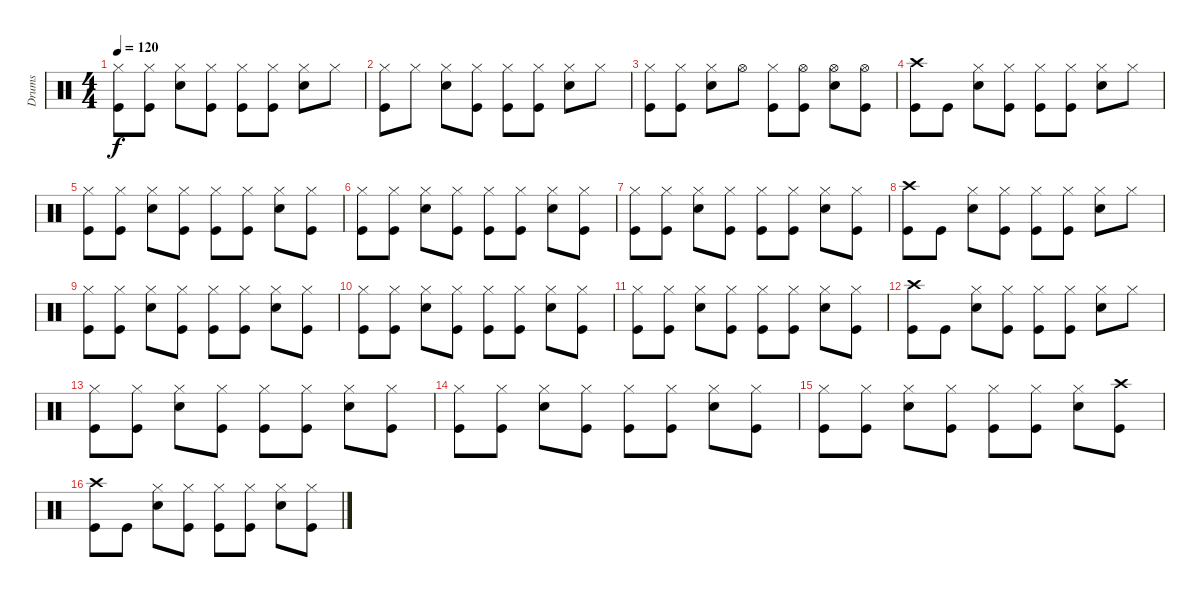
\track ("Drums" "Drums") {instrument percussion}
\staff {score}
\articulation defaults
\ts (4 4)
\tempo 120
\clef neutral
\ks c
("Hi-Hat (closed)" "Kick (hit)").8{dy f} ("Hi-Hat (closed)" "Kick (hit)").8 ("Hi-Hat (closed)" "Snare (hit) 2").8 ("Hi-Hat (closed)" "Kick (hit)").8 ("Hi-Hat (closed)" "Kick (hit)").8 ("Hi-Hat (closed)" "Kick (hit)").8 ("Hi-Hat (closed)" "Snare (hit) 2").8 "Hi-Hat (closed)".8 |
("Hi-Hat (closed)" "Kick (hit)").8 "Hi-Hat (closed)".8 ("Hi-Hat (closed)" "Snare (hit) 2").8 ("Hi-Hat (closed)" "Kick (hit)").8 ("Hi-Hat (closed)" "Kick (hit)").8 ("Hi-Hat (closed)" "Kick (hit)").8 ("Hi-Hat (closed)" "Snare (hit) 2").8 "Hi-Hat (closed)".8 |
("Hi-Hat (closed)" "Kick (hit)").8 ("Hi-Hat (closed)" "Kick (hit)").8 ("Hi-Hat (closed)" "Snare (hit) 2").8 "Hi-Hat (open)".8 ("Hi-Hat (closed)" "Kick (hit)").8 ("Hi-Hat (open)" "Kick (hit)").8 ("Hi-Hat (open)" "Snare (hit) 2").8 ("Hi-Hat (open)" "Kick (hit)").8 |
("Crash high (hit)" "Kick (hit)").8 "Kick (hit)".8 ("Hi-Hat (closed)" "Snare (hit) 2").8 ("Hi-Hat (closed)" "Kick (hit)").8 ("Hi-Hat (closed)" "Kick (hit)").8 ("Hi-Hat (closed)" "Kick (hit)").8 ("Hi-Hat (closed)" "Snare (hit) 2").8 "Hi-Hat (closed)".8 |
("Hi-Hat (closed)" "Kick (hit)").8 ("Hi-Hat (closed)" "Kick (hit)").8 ("Hi-Hat (closed)" "Snare (hit) 2").8 ("Hi-Hat (closed)" "Kick (hit)").8 ("Hi-Hat (closed)" "Kick (hit)").8 ("Hi-Hat (closed)" "Kick (hit)").8 ("Hi-Hat (closed)" "Snare (hit) 2").8 ("Hi-Hat (closed)" "Kick (hit)").8 |
("Hi-Hat (closed)" "Kick (hit)").8 ("Hi-Hat (closed)" "Kick (hit)").8 ("Hi-Hat (closed)" "Snare (hit) 2").8 ("Hi-Hat (closed)" "Kick (hit)").8 ("Hi-Hat (closed)" "Kick (hit)").8 ("Hi-Hat (closed)" "Kick (hit)").8 ("Hi-Hat (closed)" "Snare (hit) 2").8 ("Hi-Hat (closed)" "Kick (hit)").8 |
("Hi-Hat (closed)" "Kick (hit)").8 ("Hi-Hat (closed)" "Kick (hit)").8 ("Hi-Hat (closed)" "Snare (hit) 2").8 ("Hi-Hat (closed)" "Kick (hit)").8 ("Hi-Hat (closed)" "Kick (hit)").8 ("Hi-Hat (closed)" "Kick (hit)").8 ("Hi-Hat (closed)" "Snare (hit) 2").8 ("Hi-Hat (closed)" "Kick (hit)").8 |
("Crash high (hit)" "Kick (hit)").8 "Kick (hit)".8 ("Hi-Hat (closed)" "Snare (hit) 2").8 ("Hi-Hat (closed)" "Kick (hit)").8 ("Hi-Hat (closed)" "Kick (hit)").8 ("Hi-Hat (closed)" "Kick (hit)").8 ("Hi-Hat (closed)" "Snare (hit) 2").8 "Hi-Hat (closed)".8 |
("Hi-Hat (closed)" "Kick (hit)").8 ("Hi-Hat (closed)" "Kick (hit)").8 ("Hi-Hat (closed)" "Snare (hit) 2").8 ("Hi-Hat (closed)" "Kick (hit)").8 ("Hi-Hat (closed)" "Kick (hit)").8 ("Hi-Hat (closed)" "Kick (hit)").8 ("Hi-Hat (closed)" "Snare (hit) 2").8 ("Hi-Hat (closed)" "Kick (hit)").8 |
("Hi-Hat (closed)" "Kick (hit)").8 ("Hi-Hat (closed)" "Kick (hit)").8 ("Hi-Hat (closed)" "Snare (hit) 2").8 ("Hi-Hat (closed)" "Kick (hit)").8 ("Hi-Hat (closed)" "Kick (hit)").8 ("Hi-Hat (closed)" "Kick (hit)").8 ("Hi-Hat (closed)" "Snare (hit) 2").8 ("Hi-Hat (closed)" "Kick (hit)").8 |
("Hi-Hat (closed)" "Kick (hit)").8 ("Hi-Hat (closed)" "Kick (hit)").8 ("Hi-Hat (closed)" "Snare (hit) 2").8 ("Hi-Hat (closed)" "Kick (hit)").8 ("Hi-Hat (closed)" "Kick (hit)").8 ("Hi-Hat (closed)" "Kick (hit)").8 ("Hi-Hat (closed)" "Snare (hit) 2").8 ("Hi-Hat (closed)" "Kick (hit)").8 |
("Crash high (hit)" "Kick (hit)").8 "Kick (hit)".8 ("Hi-Hat (closed)" "Snare (hit) 2").8 ("Hi-Hat (closed)" "Kick (hit)").8 ("Hi-Hat (closed)" "Kick (hit)").8 ("Hi-Hat (closed)" "Kick (hit)").8 ("Hi-Hat (closed)" "Snare (hit) 2").8 "Hi-Hat (closed)".8 |
("Hi-Hat (closed)" "Kick (hit)").8 ("Hi-Hat (closed)" "Kick (hit)").8 ("Hi-Hat (closed)" "Snare (hit) 2").8 ("Hi-Hat (closed)" "Kick (hit)").8 ("Hi-Hat (closed)" "Kick (hit)").8 ("Hi-Hat (closed)" "Kick (hit)").8 ("Hi-Hat (closed)" "Snare (hit) 2").8 ("Hi-Hat (closed)" "Kick (hit)").8 |
("Hi-Hat (closed)" "Kick (hit)").8 ("Hi-Hat (closed)" "Kick (hit)").8 ("Hi-Hat (closed)" "Snare (hit) 2").8 ("Hi-Hat (closed)" "Kick (hit)").8 ("Hi-Hat (closed)" "Kick (hit)").8 ("Hi-Hat (closed)" "Kick (hit)").8 ("Hi-Hat (closed)" "Snare (hit) 2").8 ("Hi-Hat (closed)" "Kick (hit)").8 |
("Hi-Hat (closed)" "Kick (hit)").8 ("Hi-Hat (closed)" "Kick (hit)").8 ("Hi-Hat (closed)" "Snare (hit) 2").8 ("Hi-Hat (closed)" "Kick (hit)").8 ("Hi-Hat (closed)" "Kick (hit)").8 ("Hi-Hat (closed)" "Kick (hit)").8 ("Hi-Hat (closed)" "Snare (hit) 2").8 ("Crash high (hit)" "Kick (hit)").8 |
("Crash high (hit)" "Kick (hit)").8 "Kick (hit)".8 ("Hi-Hat (closed)" "Snare (hit) 2").8 ("Hi-Hat (closed)" "Kick (hit)").8 ("Hi-Hat (closed)" "Kick (hit)").8 ("Hi-Hat (closed)" "Kick (hit)").8 ("Hi-Hat (closed)" "Snare (hit) 2").8 ("Hi-Hat (closed)" "Kick (hit)").8
